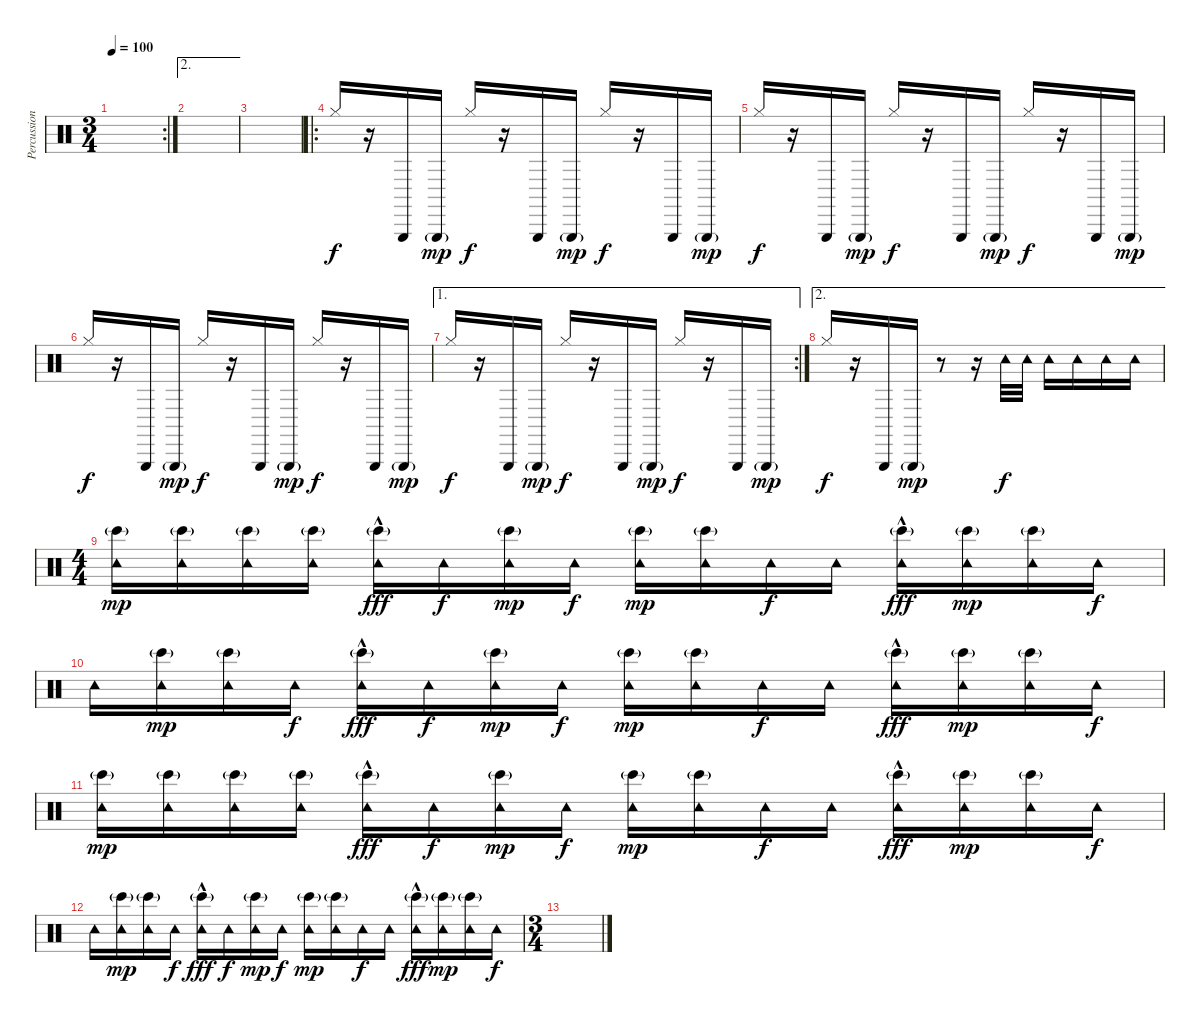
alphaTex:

\track ("Percussion" "Percussion") {instrument percussion}
\staff {score}
\articulation defaults
\rc 2
\ts (3 4)
\tempo 100
\clef neutral
\ks c
|
\ae 2
|
|
\ro "Hi-Hat (closed)".16
r.16 "Triangle (hit)".16 "Triangle (hit)"{g}.16{dy mp} "Hi-Hat (closed)".16{dy f} r.16 "Triangle (hit)".16 "Triangle (hit)"{g}.16{dy mp} "Hi-Hat (closed)".16{dy f} r.16 "Triangle (hit)".16 "Triangle (hit)"{g}.16{dy mp} |
"Hi-Hat (closed)".16{dy f} r.16 "Triangle (hit)".16 "Triangle (hit)"{g}.16{dy mp} "Hi-Hat (closed)".16{dy f} r.16 "Triangle (hit)".16 "Triangle (hit)"{g}.16{dy mp} "Hi-Hat (closed)".16{dy f} r.16 "Triangle (hit)".16 "Triangle (hit)"{g}.16{dy mp} |
"Hi-Hat (closed)".16{dy f} r.16 "Triangle (hit)".16 "Triangle (hit)"{g}.16{dy mp} "Hi-Hat (closed)".16{dy f} r.16 "Triangle (hit)".16 "Triangle (hit)"{g}.16{dy mp} "Hi-Hat (closed)".16{dy f} r.16 "Triangle (hit)".16 "Triangle (hit)"{g}.16{dy mp} |
\ae 1
\rc 2 "Hi-Hat (closed)".16{dy f}
r.16 "Triangle (hit)".16 "Triangle (hit)"{g}.16{dy mp} "Hi-Hat (closed)".16{dy f} r.16 "Triangle (hit)".16 "Triangle (hit)"{g}.16{dy mp} "Hi-Hat (closed)".16{dy f} r.16 "Triangle (hit)".16 "Triangle (hit)"{g}.16{dy mp} |
\ae 2 "Hi-Hat (closed)".16{dy f}
r.16 "Triangle (hit)".16 "Triangle (hit)"{g}.16{dy mp} r.8 r.16 "Tambourine (hit)".32{dy f} "Tambourine (hit)".32 "Tambourine (hit)".16 "Tambourine (hit)".16 "Tambourine (hit)".16 "Tambourine (hit)".16 |
\ts (4 4)
("Bongo High (hit)"{g} "Tambourine (hit)").16{dy mp} ("Bongo High (hit)"{g} "Tambourine (hit)").16 ("Bongo High (hit)"{g} "Tambourine (hit)").16 ("Bongo High (hit)"{g} "Tambourine (hit)").16 ("Bongo High (hit)"{g} "Tambourine (hit)"{hac}).16{dy fff} "Tambourine (hit)".16{dy f} ("Bongo High (hit)"{g} "Tambourine (hit)").16{dy mp} "Tambourine (hit)".16{dy f} ("Bongo High (hit)"{g} "Tambourine (hit)").16{dy mp} ("Bongo High (hit)"{g} "Tambourine (hit)").16 "Tambourine (hit)".16{dy f} "Tambourine (hit)".16 ("Bongo High (hit)"{g} "Tambourine (hit)"{hac}).16{dy fff} ("Bongo High (hit)"{g} "Tambourine (hit)").16{dy mp} ("Bongo High (hit)"{g} "Tambourine (hit)").16 "Tambourine (hit)".16{dy f} |
"Tambourine (hit)".16 ("Bongo High (hit)"{g} "Tambourine (hit)").16{dy mp} ("Bongo High (hit)"{g} "Tambourine (hit)").16 "Tambourine (hit)".16{dy f} ("Bongo High (hit)"{g} "Tambourine (hit)"{hac}).16{dy fff} "Tambourine (hit)".16{dy f} ("Bongo High (hit)"{g} "Tambourine (hit)").16{dy mp} "Tambourine (hit)".16{dy f} ("Bongo High (hit)"{g} "Tambourine (hit)").16{dy mp} ("Bongo High (hit)"{g} "Tambourine (hit)").16 "Tambourine (hit)".16{dy f} "Tambourine (hit)".16 ("Bongo High (hit)"{g} "Tambourine (hit)"{hac}).16{dy fff} ("Bongo High (hit)"{g} "Tambourine (hit)").16{dy mp} ("Bongo High (hit)"{g} "Tambourine (hit)").16 "Tambourine (hit)".16{dy f} |
("Bongo High (hit)"{g} "Tambourine (hit)").16{dy mp} ("Bongo High (hit)"{g} "Tambourine (hit)").16 ("Bongo High (hit)"{g} "Tambourine (hit)").16 ("Bongo High (hit)"{g} "Tambourine (hit)").16 ("Bongo High (hit)"{g} "Tambourine (hit)"{hac}).16{dy fff} "Tambourine (hit)".16{dy f} ("Bongo High (hit)"{g} "Tambourine (hit)").16{dy mp} "Tambourine (hit)".16{dy f} ("Bongo High (hit)"{g} "Tambourine (hit)").16{dy mp} ("Bongo High (hit)"{g} "Tambourine (hit)").16 "Tambourine (hit)".16{dy f} "Tambourine (hit)".16 ("Bongo High (hit)"{g} "Tambourine (hit)"{hac}).16{dy fff} ("Bongo High (hit)"{g} "Tambourine (hit)").16{dy mp} ("Bongo High (hit)"{g} "Tambourine (hit)").16 "Tambourine (hit)".16{dy f} |
"Tambourine (hit)".16 ("Bongo High (hit)"{g} "Tambourine (hit)").16{dy mp} ("Bongo High (hit)"{g} "Tambourine (hit)").16 "Tambourine (hit)".16{dy f} ("Bongo High (hit)"{g} "Tambourine (hit)"{hac}).16{dy fff} "Tambourine (hit)".16{dy f} ("Bongo High (hit)"{g} "Tambourine (hit)").16{dy mp} "Tambourine (hit)".16{dy f} ("Bongo High (hit)"{g} "Tambourine (hit)").16{dy mp} ("Bongo High (hit)"{g} "Tambourine (hit)").16 "Tambourine (hit)".16{dy f} "Tambourine (hit)".16 ("Bongo High (hit)"{g} "Tambourine (hit)"{hac}).16{dy fff} ("Bongo High (hit)"{g} "Tambourine (hit)").16{dy mp} ("Bongo High (hit)"{g} "Tambourine (hit)").16 "Tambourine (hit)".16{dy f} |
\ts (3 4)
